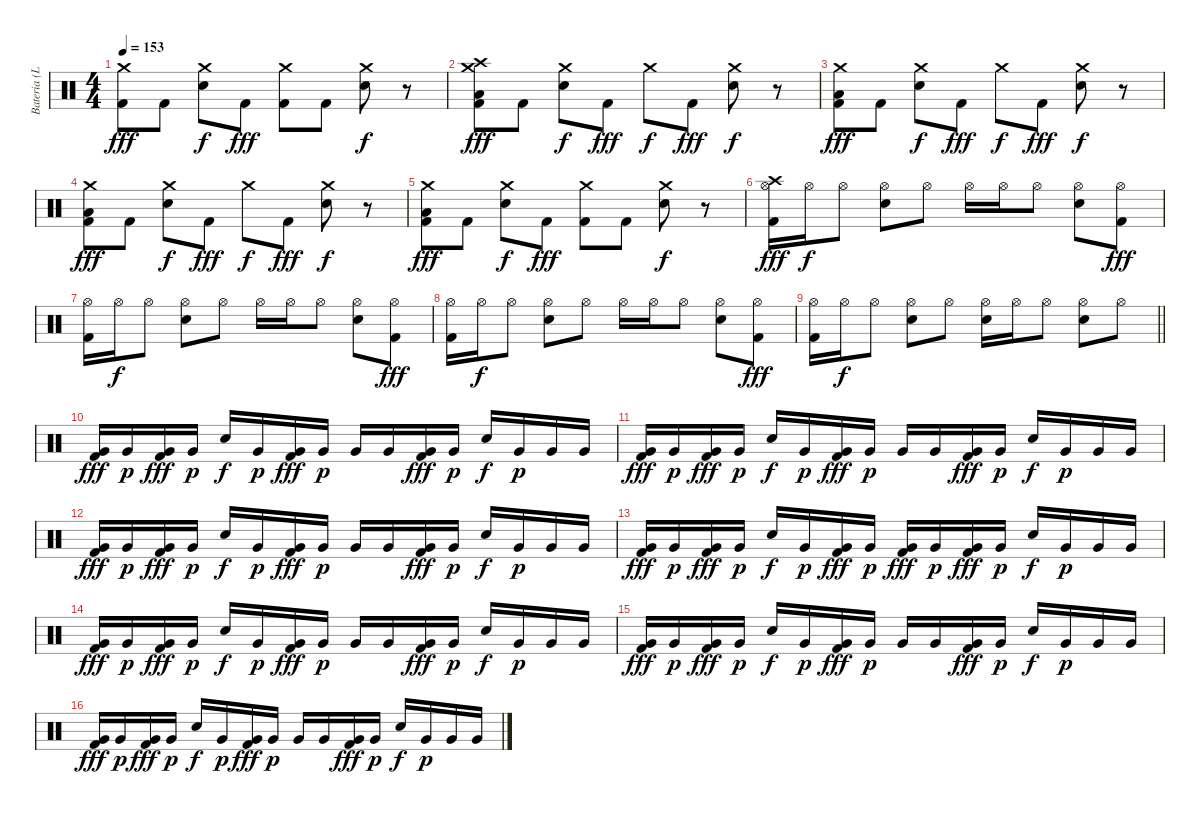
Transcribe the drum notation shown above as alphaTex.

\track ("Bateria (Lars)" "Bateria (L") {instrument percussion}
\staff {score}
\articulation defaults
\ts (4 4)
\tempo 153
\clef neutral
\ks c
("Crash medium (hit)" "Kick (hit) 2").8{dy fff} "Kick (hit) 2".8 ("Crash medium (hit)" "Electric Snare (hit)").8{dy f} "Kick (hit) 2".8{dy fff} ("Crash medium (hit)" "Kick (hit) 2").8 "Kick (hit) 2".8 ("Crash medium (hit)" "Electric Snare (hit)").8{dy f} r.8 |
("Crash medium (hit)" "Crash high (hit)" "Low Floor Tom (hit)" "Kick (hit) 2").8{dy fff} "Kick (hit) 2".8 ("Crash medium (hit)" "Electric Snare (hit)").8{dy f} "Kick (hit) 2".8{dy fff} "Crash medium (hit)".8{dy f} "Kick (hit) 2".8{dy fff} ("Crash medium (hit)" "Electric Snare (hit)").8{dy f} r.8 |
("Crash medium (hit)" "Low Floor Tom (hit)" "Kick (hit) 2").8{dy fff} "Kick (hit) 2".8 ("Crash medium (hit)" "Electric Snare (hit)").8{dy f} "Kick (hit) 2".8{dy fff} "Crash medium (hit)".8{dy f} "Kick (hit) 2".8{dy fff} ("Crash medium (hit)" "Electric Snare (hit)").8{dy f} r.8 |
("Crash medium (hit)" "Low Floor Tom (hit)" "Kick (hit) 2").8{dy fff} "Kick (hit) 2".8 ("Crash medium (hit)" "Electric Snare (hit)").8{dy f} "Kick (hit) 2".8{dy fff} "Crash medium (hit)".8{dy f} "Kick (hit) 2".8{dy fff} ("Crash medium (hit)" "Electric Snare (hit)").8{dy f} r.8 |
("Crash medium (hit)" "Low Floor Tom (hit)" "Kick (hit) 2").8{dy fff} "Kick (hit) 2".8 ("Crash medium (hit)" "Electric Snare (hit)").8{dy f} "Kick (hit) 2".8{dy fff} ("Crash medium (hit)" "Kick (hit) 2").8 "Kick (hit) 2".8 ("Crash medium (hit)" "Electric Snare (hit)").8{dy f} r.8 |
("Crash high (hit)" "Hi-Hat (open)" "Kick (hit) 2").16{dy fff} "Hi-Hat (open)".16{dy f} "Hi-Hat (open)".8 ("Hi-Hat (open)" "Electric Snare (hit)").8 "Hi-Hat (open)".8 "Hi-Hat (open)".16 "Hi-Hat (open)".16 "Hi-Hat (open)".8 ("Hi-Hat (open)" "Electric Snare (hit)").8 ("Hi-Hat (open)" "Kick (hit) 2").8{dy fff} |
("Hi-Hat (open)" "Kick (hit) 2").16 "Hi-Hat (open)".16{dy f} "Hi-Hat (open)".8 ("Hi-Hat (open)" "Electric Snare (hit)").8 "Hi-Hat (open)".8 "Hi-Hat (open)".16 "Hi-Hat (open)".16 "Hi-Hat (open)".8 ("Hi-Hat (open)" "Electric Snare (hit)").8 ("Hi-Hat (open)" "Kick (hit) 2").8{dy fff} |
("Hi-Hat (open)" "Kick (hit) 2").16 "Hi-Hat (open)".16{dy f} "Hi-Hat (open)".8 ("Hi-Hat (open)" "Electric Snare (hit)").8 "Hi-Hat (open)".8 "Hi-Hat (open)".16 "Hi-Hat (open)".16 "Hi-Hat (open)".8 ("Hi-Hat (open)" "Electric Snare (hit)").8 ("Hi-Hat (open)" "Kick (hit) 2").8{dy fff} |
\barLineRight lightlight
("Hi-Hat (open)" "Kick (hit) 2").16 "Hi-Hat (open)".16{dy f} "Hi-Hat (open)".8 ("Hi-Hat (open)" "Electric Snare (hit)").8 "Hi-Hat (open)".8 ("Hi-Hat (open)" "Electric Snare (hit)").16 "Hi-Hat (open)".16 "Hi-Hat (open)".8 ("Hi-Hat (open)" "Electric Snare (hit)").8 "Hi-Hat (open)".8 |
("Very Low Tom (hit)" "Kick (hit) 2").16{dy fff} "Very Low Tom (hit)".16{dy p} ("Very Low Tom (hit)" "Kick (hit) 2").16{dy fff} "Very Low Tom (hit)".16{dy p} "Electric Snare (hit)".16{dy f} "Very Low Tom (hit)".16{dy p} ("Very Low Tom (hit)" "Kick (hit) 2").16{dy fff} "Very Low Tom (hit)".16{dy p} "Very Low Tom (hit)".16 "Very Low Tom (hit)".16 ("Very Low Tom (hit)" "Kick (hit) 2").16{dy fff} "Very Low Tom (hit)".16{dy p} "Electric Snare (hit)".16{dy f} "Very Low Tom (hit)".16{dy p} "Very Low Tom (hit)".16 "Very Low Tom (hit)".16 |
("Very Low Tom (hit)" "Kick (hit) 2").16{dy fff} "Very Low Tom (hit)".16{dy p} ("Very Low Tom (hit)" "Kick (hit) 2").16{dy fff} "Very Low Tom (hit)".16{dy p} "Electric Snare (hit)".16{dy f} "Very Low Tom (hit)".16{dy p} ("Very Low Tom (hit)" "Kick (hit) 2").16{dy fff} "Very Low Tom (hit)".16{dy p} "Very Low Tom (hit)".16 "Very Low Tom (hit)".16 ("Very Low Tom (hit)" "Kick (hit) 2").16{dy fff} "Very Low Tom (hit)".16{dy p} "Electric Snare (hit)".16{dy f} "Very Low Tom (hit)".16{dy p} "Very Low Tom (hit)".16 "Very Low Tom (hit)".16 |
("Very Low Tom (hit)" "Kick (hit) 2").16{dy fff} "Very Low Tom (hit)".16{dy p} ("Very Low Tom (hit)" "Kick (hit) 2").16{dy fff} "Very Low Tom (hit)".16{dy p} "Electric Snare (hit)".16{dy f} "Very Low Tom (hit)".16{dy p} ("Very Low Tom (hit)" "Kick (hit) 2").16{dy fff} "Very Low Tom (hit)".16{dy p} "Very Low Tom (hit)".16 "Very Low Tom (hit)".16 ("Very Low Tom (hit)" "Kick (hit) 2").16{dy fff} "Very Low Tom (hit)".16{dy p} "Electric Snare (hit)".16{dy f} "Very Low Tom (hit)".16{dy p} "Very Low Tom (hit)".16 "Very Low Tom (hit)".16 |
("Very Low Tom (hit)" "Kick (hit) 2").16{dy fff} "Very Low Tom (hit)".16{dy p} ("Very Low Tom (hit)" "Kick (hit) 2").16{dy fff} "Very Low Tom (hit)".16{dy p} "Electric Snare (hit)".16{dy f} "Very Low Tom (hit)".16{dy p} ("Very Low Tom (hit)" "Kick (hit) 2").16{dy fff} "Very Low Tom (hit)".16{dy p} ("Very Low Tom (hit)" "Kick (hit) 2").16{dy fff} "Very Low Tom (hit)".16{dy p} ("Very Low Tom (hit)" "Kick (hit) 2").16{dy fff} "Very Low Tom (hit)".16{dy p} "Electric Snare (hit)".16{dy f} "Very Low Tom (hit)".16{dy p} "Very Low Tom (hit)".16 "Very Low Tom (hit)".16 |
("Very Low Tom (hit)" "Kick (hit) 2").16{dy fff} "Very Low Tom (hit)".16{dy p} ("Very Low Tom (hit)" "Kick (hit) 2").16{dy fff} "Very Low Tom (hit)".16{dy p} "Electric Snare (hit)".16{dy f} "Very Low Tom (hit)".16{dy p} ("Very Low Tom (hit)" "Kick (hit) 2").16{dy fff} "Very Low Tom (hit)".16{dy p} "Very Low Tom (hit)".16 "Very Low Tom (hit)".16 ("Very Low Tom (hit)" "Kick (hit) 2").16{dy fff} "Very Low Tom (hit)".16{dy p} "Electric Snare (hit)".16{dy f} "Very Low Tom (hit)".16{dy p} "Very Low Tom (hit)".16 "Very Low Tom (hit)".16 |
("Very Low Tom (hit)" "Kick (hit) 2").16{dy fff} "Very Low Tom (hit)".16{dy p} ("Very Low Tom (hit)" "Kick (hit) 2").16{dy fff} "Very Low Tom (hit)".16{dy p} "Electric Snare (hit)".16{dy f} "Very Low Tom (hit)".16{dy p} ("Very Low Tom (hit)" "Kick (hit) 2").16{dy fff} "Very Low Tom (hit)".16{dy p} "Very Low Tom (hit)".16 "Very Low Tom (hit)".16 ("Very Low Tom (hit)" "Kick (hit) 2").16{dy fff} "Very Low Tom (hit)".16{dy p} "Electric Snare (hit)".16{dy f} "Very Low Tom (hit)".16{dy p} "Very Low Tom (hit)".16 "Very Low Tom (hit)".16 |
("Very Low Tom (hit)" "Kick (hit) 2").16{dy fff} "Very Low Tom (hit)".16{dy p} ("Very Low Tom (hit)" "Kick (hit) 2").16{dy fff} "Very Low Tom (hit)".16{dy p} "Electric Snare (hit)".16{dy f} "Very Low Tom (hit)".16{dy p} ("Very Low Tom (hit)" "Kick (hit) 2").16{dy fff} "Very Low Tom (hit)".16{dy p} "Very Low Tom (hit)".16 "Very Low Tom (hit)".16 ("Very Low Tom (hit)" "Kick (hit) 2").16{dy fff} "Very Low Tom (hit)".16{dy p} "Electric Snare (hit)".16{dy f} "Very Low Tom (hit)".16{dy p} "Very Low Tom (hit)".16 "Very Low Tom (hit)".16
